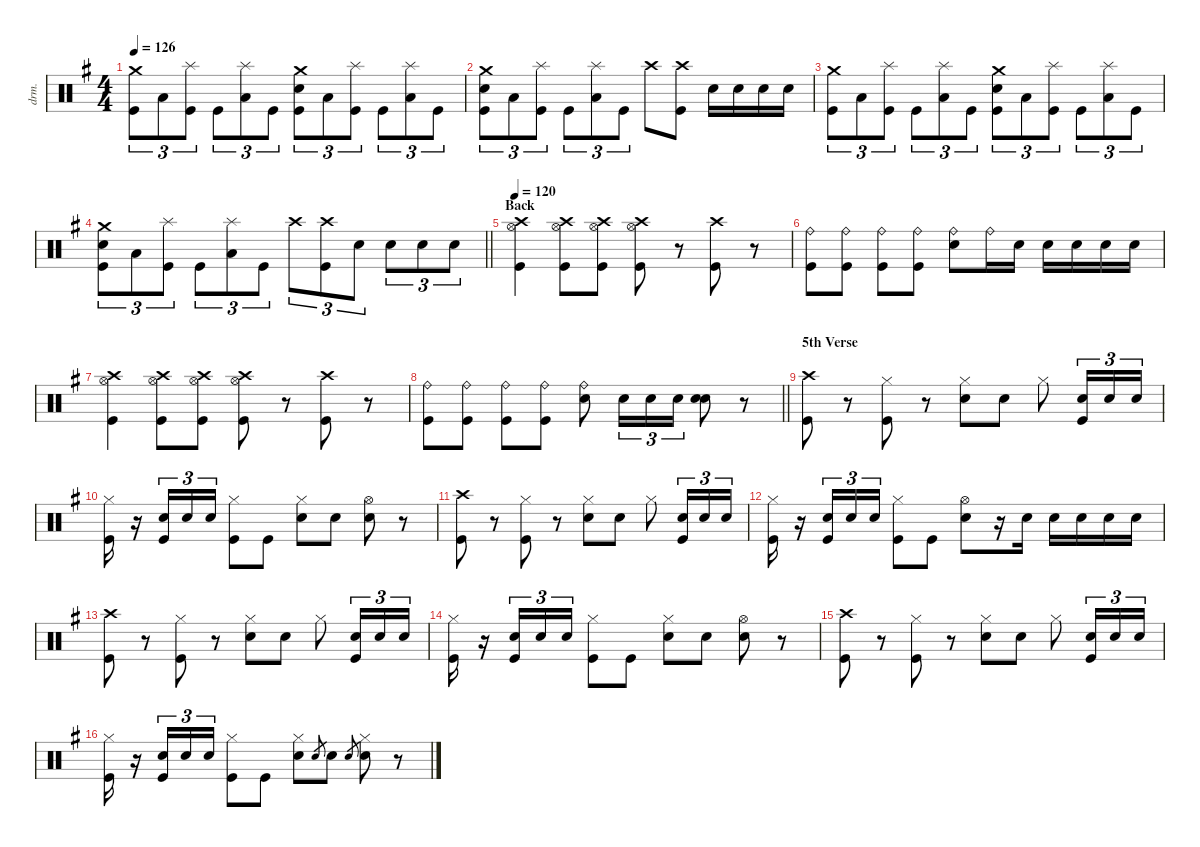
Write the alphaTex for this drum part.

\defaultSystemsLayout 4
\hideDynamics
\bracketExtendMode nobrackets
\track ("Drums (Bill Ward)" "drm.") {instrument percussion}
\staff {score}
\articulation defaults
\ts (4 4)
\tempo 126
\clef neutral
\ks g
("Crash medium (hit)"{acc forcenatural} "Kick (hit)"{acc forcenatural}).8{tu (3 2) dy f} "Low Tom (hit)"{acc forcenatural}.8{tu (3 2)} ("Splash (hit)"{acc forcenatural} "Kick (hit)"{acc forcenatural}).8{tu (3 2)} "Kick (hit)"{acc forcenatural}.8{tu (3 2)} ("Splash (hit)"{acc forcenatural} "Low Tom (hit)"{acc forcenatural}).8{tu (3 2)} "Kick (hit)"{acc forcenatural}.8{tu (3 2)} ("Crash medium (hit)"{acc forcenatural} "Snare (hit) 2"{acc forcenatural} "Kick (hit)"{acc forcenatural}).8{tu (3 2)} "Low Tom (hit)"{acc forcenatural}.8{tu (3 2)} ("Splash (hit)"{acc forcenatural} "Kick (hit)"{acc forcenatural}).8{tu (3 2)} "Kick (hit)"{acc forcenatural}.8{tu (3 2)} ("Splash (hit)"{acc forcenatural} "Low Tom (hit)"{acc forcenatural}).8{tu (3 2)} "Kick (hit)"{acc forcenatural}.8{tu (3 2)} |
("Crash medium (hit)"{acc forcenatural} "Snare (hit) 2"{acc forcenatural} "Kick (hit)"{acc forcenatural}).8{tu (3 2)} "Low Tom (hit)"{acc forcenatural}.8{tu (3 2)} ("Splash (hit)"{acc forcenatural} "Kick (hit)"{acc forcenatural}).8{tu (3 2)} "Kick (hit)"{acc forcenatural}.8{tu (3 2)} ("Splash (hit)"{acc forcenatural} "Low Tom (hit)"{acc forcenatural}).8{tu (3 2)} "Kick (hit)"{acc forcenatural}.8{tu (3 2)} "Crash high (hit)"{acc forcenatural}.8 ("Crash high (hit)"{acc forcenatural} "Kick (hit)"{acc forcenatural}).8 "Snare (hit) 2"{acc forcenatural}.16 "Snare (hit) 2"{acc forcenatural}.16 "Snare (hit) 2"{acc forcenatural}.16 "Snare (hit) 2"{acc forcenatural}.16 |
("Crash medium (hit)"{acc forcenatural} "Kick (hit)"{acc forcenatural}).8{tu (3 2)} "Low Tom (hit)"{acc forcenatural}.8{tu (3 2)} ("Splash (hit)"{acc forcenatural} "Kick (hit)"{acc forcenatural}).8{tu (3 2)} "Kick (hit)"{acc forcenatural}.8{tu (3 2)} ("Splash (hit)"{acc forcenatural} "Low Tom (hit)"{acc forcenatural}).8{tu (3 2)} "Kick (hit)"{acc forcenatural}.8{tu (3 2)} ("Crash medium (hit)"{acc forcenatural} "Snare (hit) 2"{acc forcenatural} "Kick (hit)"{acc forcenatural}).8{tu (3 2)} "Low Tom (hit)"{acc forcenatural}.8{tu (3 2)} ("Splash (hit)"{acc forcenatural} "Kick (hit)"{acc forcenatural}).8{tu (3 2)} "Kick (hit)"{acc forcenatural}.8{tu (3 2)} ("Splash (hit)"{acc forcenatural} "Low Tom (hit)"{acc forcenatural}).8{tu (3 2)} "Kick (hit)"{acc forcenatural}.8{tu (3 2)} |
\barLineRight lightlight
("Crash medium (hit)"{acc forcenatural} "Snare (hit) 2"{acc forcenatural} "Kick (hit)"{acc forcenatural}).8{tu (3 2)} "Low Tom (hit)"{acc forcenatural}.8{tu (3 2)} ("Splash (hit)"{acc forcenatural} "Kick (hit)"{acc forcenatural}).8{tu (3 2)} "Kick (hit)"{acc forcenatural}.8{tu (3 2)} ("Splash (hit)"{acc forcenatural} "Low Tom (hit)"{acc forcenatural}).8{tu (3 2)} "Kick (hit)"{acc forcenatural}.8{tu (3 2)} "Crash high (hit)"{acc forcenatural}.8{tu (3 2)} ("Crash high (hit)"{acc forcenatural} "Kick (hit)"{acc forcenatural}).8{tu (3 2)} "Snare (hit) 2"{acc forcenatural}.8{tu (3 2)} "Snare (hit) 2"{acc forcenatural}.8{tu (3 2)} "Snare (hit) 2"{acc forcenatural}.8{tu (3 2)} "Snare (hit) 2"{acc forcenatural}.8{tu (3 2)} |
\section ("" "Back")
\tempo 120
("Crash high (hit)"{acc forcenatural} "Hi-Hat (open)"{acc forcenatural} "Kick (hit)"{acc forcenatural}).4 ("Crash high (hit)"{acc forcenatural} "Hi-Hat (open)"{acc forcenatural} "Kick (hit)"{acc forcenatural}).8 ("Crash high (hit)"{acc forcenatural} "Hi-Hat (open)"{acc forcenatural} "Kick (hit)"{acc forcenatural}).8 ("Crash high (hit)"{acc forcenatural} "Hi-Hat (open)"{acc forcenatural} "Kick (hit)"{acc forcenatural}).8 r.8 ("Crash high (hit)"{acc forcenatural} "Kick (hit)"{acc forcenatural}).8 r.8 |
("Ride (bell)"{acc forcenatural} "Kick (hit)"{acc forcenatural}).8 ("Ride (bell)"{acc forcenatural} "Kick (hit)"{acc forcenatural}).8 ("Ride (bell)"{acc forcenatural} "Kick (hit)"{acc forcenatural}).8 ("Ride (bell)"{acc forcenatural} "Kick (hit)"{acc forcenatural}).8 ("Ride (bell)"{acc forcenatural} "Snare (hit) 2"{acc forcenatural}).8 "Ride (bell)"{acc forcenatural}.16 "Snare (hit) 2"{acc forcenatural}.16 "Snare (hit) 2"{acc forcenatural}.16 "Snare (hit) 2"{acc forcenatural}.16{dy ff} "Snare (hit) 2"{acc forcenatural}.16{dy f} "Snare (hit) 2"{acc forcenatural}.16 |
("Crash high (hit)"{acc forcenatural} "Hi-Hat (open)"{acc forcenatural} "Kick (hit)"{acc forcenatural}).4 ("Crash high (hit)"{acc forcenatural} "Hi-Hat (open)"{acc forcenatural} "Kick (hit)"{acc forcenatural}).8 ("Crash high (hit)"{acc forcenatural} "Hi-Hat (open)"{acc forcenatural} "Kick (hit)"{acc forcenatural}).8 ("Crash high (hit)"{acc forcenatural} "Hi-Hat (open)"{acc forcenatural} "Kick (hit)"{acc forcenatural}).8 r.8 ("Crash high (hit)"{acc forcenatural} "Kick (hit)"{acc forcenatural}).8 r.8 |
\barLineRight lightlight
("Ride (bell)"{acc forcenatural} "Kick (hit)"{acc forcenatural}).8 ("Ride (bell)"{acc forcenatural} "Kick (hit)"{acc forcenatural}).8 ("Ride (bell)"{acc forcenatural} "Kick (hit)"{acc forcenatural}).8 ("Ride (bell)"{acc forcenatural} "Kick (hit)"{acc forcenatural}).8 ("Ride (bell)"{acc forcenatural} "Snare (hit) 2"{acc forcenatural}).8 "Snare (hit) 2"{acc forcenatural}.16{tu (3 2)} "Snare (hit) 2"{acc forcenatural}.16{tu (3 2)} "Snare (hit) 2"{acc forcenatural}.16{tu (3 2)} ("Snare (hit) 2"{acc forcenatural} "Snare (hit) 2"{acc forcenatural}).8{dy ff} r.8 |
\section ("" "5th Verse")
("Crash high (hit)"{acc forcenatural} "Kick (hit)"{acc forcenatural}).8{dy f} r.8 ("Hi-Hat (closed)"{acc forcenatural} "Kick (hit)"{acc forcenatural}).8 r.8 ("Hi-Hat (closed)"{acc forcenatural} "Snare (hit) 2"{acc forcenatural}).8 "Snare (hit) 2"{acc forcenatural}.8 "Hi-Hat (closed)"{acc forcenatural}.8 ("Snare (hit) 2"{acc forcenatural} "Kick (hit)"{acc forcenatural}).16{tu (3 2) dy p} "Snare (hit) 2"{acc forcenatural}.16{tu (3 2)} "Snare (hit) 2"{acc forcenatural}.16{tu (3 2)} |
("Hi-Hat (closed)"{acc forcenatural} "Kick (hit)"{acc forcenatural}).16{dy f} r.16 ("Snare (hit) 2"{acc forcenatural} "Kick (hit)"{acc forcenatural}).16{tu (3 2) dy p} "Snare (hit) 2"{acc forcenatural}.16{tu (3 2)} "Snare (hit) 2"{acc forcenatural}.16{tu (3 2)} ("Hi-Hat (closed)"{acc forcenatural} "Kick (hit)"{acc forcenatural}).8{dy f} "Kick (hit)"{acc forcenatural}.8 ("Hi-Hat (closed)"{acc forcenatural} "Snare (hit) 2"{acc forcenatural}).8 "Snare (hit) 2"{acc forcenatural}.8 ("Hi-Hat (open)"{acc forcenatural} "Snare (hit) 2"{acc forcenatural}).8 r.8 |
("Crash high (hit)"{acc forcenatural} "Kick (hit)"{acc forcenatural}).8 r.8 ("Hi-Hat (closed)"{acc forcenatural} "Kick (hit)"{acc forcenatural}).8 r.8 ("Hi-Hat (closed)"{acc forcenatural} "Snare (hit) 2"{acc forcenatural}).8 "Snare (hit) 2"{acc forcenatural}.8 "Hi-Hat (closed)"{acc forcenatural}.8 ("Snare (hit) 2"{acc forcenatural} "Kick (hit)"{acc forcenatural}).16{tu (3 2) dy p} "Snare (hit) 2"{acc forcenatural}.16{tu (3 2)} "Snare (hit) 2"{acc forcenatural}.16{tu (3 2)} |
("Hi-Hat (closed)"{acc forcenatural} "Kick (hit)"{acc forcenatural}).16{dy f} r.16 ("Snare (hit) 2"{acc forcenatural} "Kick (hit)"{acc forcenatural}).16{tu (3 2) dy p} "Snare (hit) 2"{acc forcenatural}.16{tu (3 2)} "Snare (hit) 2"{acc forcenatural}.16{tu (3 2)} ("Hi-Hat (closed)"{acc forcenatural} "Kick (hit)"{acc forcenatural}).8{dy f} "Kick (hit)"{acc forcenatural}.8 ("Hi-Hat (open)"{acc forcenatural} "Snare (hit) 2"{acc forcenatural}).8{dy fff} r.16 "Snare (hit) 2"{acc forcenatural}.16{dy f} "Snare (hit) 2"{acc forcenatural}.16 "Snare (hit) 2"{acc forcenatural}.16 "Snare (hit) 2"{acc forcenatural}.16 "Snare (hit) 2"{acc forcenatural}.16 |
("Crash high (hit)"{acc forcenatural} "Kick (hit)"{acc forcenatural}).8 r.8 ("Hi-Hat (closed)"{acc forcenatural} "Kick (hit)"{acc forcenatural}).8 r.8 ("Hi-Hat (closed)"{acc forcenatural} "Snare (hit) 2"{acc forcenatural}).8 "Snare (hit) 2"{acc forcenatural}.8 "Hi-Hat (closed)"{acc forcenatural}.8 ("Snare (hit) 2"{acc forcenatural} "Kick (hit)"{acc forcenatural}).16{tu (3 2) dy p} "Snare (hit) 2"{acc forcenatural}.16{tu (3 2)} "Snare (hit) 2"{acc forcenatural}.16{tu (3 2)} |
("Hi-Hat (closed)"{acc forcenatural} "Kick (hit)"{acc forcenatural}).16{dy f} r.16 ("Snare (hit) 2"{acc forcenatural} "Kick (hit)"{acc forcenatural}).16{tu (3 2) dy p} "Snare (hit) 2"{acc forcenatural}.16{tu (3 2)} "Snare (hit) 2"{acc forcenatural}.16{tu (3 2)} ("Hi-Hat (closed)"{acc forcenatural} "Kick (hit)"{acc forcenatural}).8{dy f} "Kick (hit)"{acc forcenatural}.8 ("Hi-Hat (closed)"{acc forcenatural} "Snare (hit) 2"{acc forcenatural}).8 "Snare (hit) 2"{acc forcenatural}.8 ("Hi-Hat (open)"{acc forcenatural} "Snare (hit) 2"{acc forcenatural}).8{dy fff} r.8 |
("Crash high (hit)"{acc forcenatural} "Kick (hit)"{acc forcenatural}).8{dy f} r.8 ("Hi-Hat (closed)"{acc forcenatural} "Kick (hit)"{acc forcenatural}).8 r.8 ("Hi-Hat (closed)"{acc forcenatural} "Snare (hit) 2"{acc forcenatural}).8 "Snare (hit) 2"{acc forcenatural}.8 "Hi-Hat (closed)"{acc forcenatural}.8 ("Snare (hit) 2"{acc forcenatural} "Kick (hit)"{acc forcenatural}).16{tu (3 2) dy p} "Snare (hit) 2"{acc forcenatural}.16{tu (3 2)} "Snare (hit) 2"{acc forcenatural}.16{tu (3 2)} |
("Hi-Hat (closed)"{acc forcenatural} "Kick (hit)"{acc forcenatural}).16{dy f} r.16 ("Snare (hit) 2"{acc forcenatural} "Kick (hit)"{acc forcenatural}).16{tu (3 2) dy p} "Snare (hit) 2"{acc forcenatural}.16{tu (3 2)} "Snare (hit) 2"{acc forcenatural}.16{tu (3 2)} ("Hi-Hat (closed)"{acc forcenatural} "Kick (hit)"{acc forcenatural}).8{dy f} "Kick (hit)"{acc forcenatural}.8 ("Hi-Hat (closed)"{acc forcenatural} "Snare (hit) 2"{acc forcenatural}).8 "Electric Snare (hit)"{acc forcenatural}.8{gr dy mf} "Snare (hit) 2"{acc forcenatural}.8{dy f} "Electric Snare (hit)"{acc forcenatural}.8{gr dy mf} ("Hi-Hat (closed)"{acc forcenatural} "Snare (hit) 2"{acc forcenatural}).8{dy f} r.8
